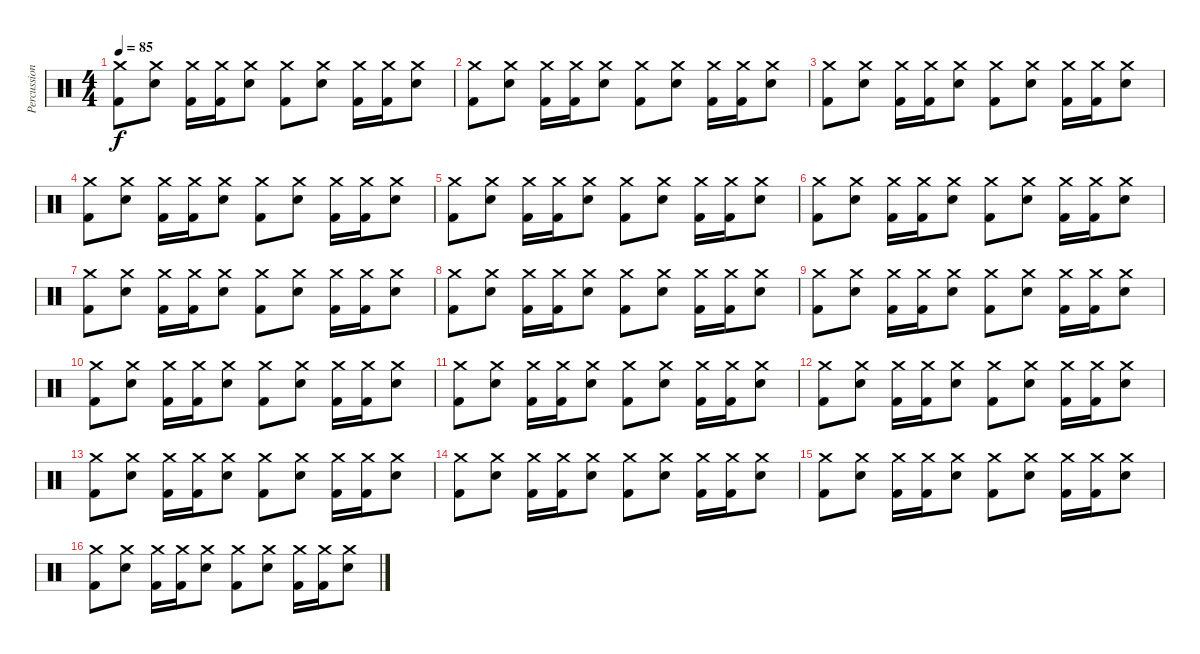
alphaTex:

\track ("Percussion" "Percussion") {instrument percussion}
\staff {score}
\articulation defaults
\ts (4 4)
\tempo 85
\clef neutral
\ks c
("Crash medium (hit)" "Kick (hit) 2").8{dy f} ("Crash medium (hit)" "Electric Snare (hit)").8 ("Crash medium (hit)" "Kick (hit) 2").16 ("Crash medium (hit)" "Kick (hit) 2").16 ("Crash medium (hit)" "Electric Snare (hit)").8 ("Crash medium (hit)" "Kick (hit) 2").8 ("Crash medium (hit)" "Electric Snare (hit)").8 ("Crash medium (hit)" "Kick (hit) 2").16 ("Crash medium (hit)" "Kick (hit) 2").16 ("Crash medium (hit)" "Electric Snare (hit)").8 |
("Crash medium (hit)" "Kick (hit) 2").8 ("Crash medium (hit)" "Electric Snare (hit)").8 ("Crash medium (hit)" "Kick (hit) 2").16 ("Crash medium (hit)" "Kick (hit) 2").16 ("Crash medium (hit)" "Electric Snare (hit)").8 ("Crash medium (hit)" "Kick (hit) 2").8 ("Crash medium (hit)" "Electric Snare (hit)").8 ("Crash medium (hit)" "Kick (hit) 2").16 ("Crash medium (hit)" "Kick (hit) 2").16 ("Crash medium (hit)" "Electric Snare (hit)").8 |
("Crash medium (hit)" "Kick (hit) 2").8 ("Crash medium (hit)" "Electric Snare (hit)").8 ("Crash medium (hit)" "Kick (hit) 2").16 ("Crash medium (hit)" "Kick (hit) 2").16 ("Crash medium (hit)" "Electric Snare (hit)").8 ("Crash medium (hit)" "Kick (hit) 2").8 ("Crash medium (hit)" "Electric Snare (hit)").8 ("Crash medium (hit)" "Kick (hit) 2").16 ("Crash medium (hit)" "Kick (hit) 2").16 ("Crash medium (hit)" "Electric Snare (hit)").8 |
("Crash medium (hit)" "Kick (hit) 2").8 ("Crash medium (hit)" "Electric Snare (hit)").8 ("Crash medium (hit)" "Kick (hit) 2").16 ("Crash medium (hit)" "Kick (hit) 2").16 ("Crash medium (hit)" "Electric Snare (hit)").8 ("Crash medium (hit)" "Kick (hit) 2").8 ("Crash medium (hit)" "Electric Snare (hit)").8 ("Crash medium (hit)" "Kick (hit) 2").16 ("Crash medium (hit)" "Kick (hit) 2").16 ("Crash medium (hit)" "Electric Snare (hit)").8 |
("Crash medium (hit)" "Kick (hit) 2").8 ("Crash medium (hit)" "Electric Snare (hit)").8 ("Crash medium (hit)" "Kick (hit) 2").16 ("Crash medium (hit)" "Kick (hit) 2").16 ("Crash medium (hit)" "Electric Snare (hit)").8 ("Crash medium (hit)" "Kick (hit) 2").8 ("Crash medium (hit)" "Electric Snare (hit)").8 ("Crash medium (hit)" "Kick (hit) 2").16 ("Crash medium (hit)" "Kick (hit) 2").16 ("Crash medium (hit)" "Electric Snare (hit)").8 |
("Crash medium (hit)" "Kick (hit) 2").8 ("Crash medium (hit)" "Electric Snare (hit)").8 ("Crash medium (hit)" "Kick (hit) 2").16 ("Crash medium (hit)" "Kick (hit) 2").16 ("Crash medium (hit)" "Electric Snare (hit)").8 ("Crash medium (hit)" "Kick (hit) 2").8 ("Crash medium (hit)" "Electric Snare (hit)").8 ("Crash medium (hit)" "Kick (hit) 2").16 ("Crash medium (hit)" "Kick (hit) 2").16 ("Crash medium (hit)" "Electric Snare (hit)").8 |
("Crash medium (hit)" "Kick (hit) 2").8 ("Crash medium (hit)" "Electric Snare (hit)").8 ("Crash medium (hit)" "Kick (hit) 2").16 ("Crash medium (hit)" "Kick (hit) 2").16 ("Crash medium (hit)" "Electric Snare (hit)").8 ("Crash medium (hit)" "Kick (hit) 2").8 ("Crash medium (hit)" "Electric Snare (hit)").8 ("Crash medium (hit)" "Kick (hit) 2").16 ("Crash medium (hit)" "Kick (hit) 2").16 ("Crash medium (hit)" "Electric Snare (hit)").8 |
("Crash medium (hit)" "Kick (hit) 2").8 ("Crash medium (hit)" "Electric Snare (hit)").8 ("Crash medium (hit)" "Kick (hit) 2").16 ("Crash medium (hit)" "Kick (hit) 2").16 ("Crash medium (hit)" "Electric Snare (hit)").8 ("Crash medium (hit)" "Kick (hit) 2").8 ("Crash medium (hit)" "Electric Snare (hit)").8 ("Crash medium (hit)" "Kick (hit) 2").16 ("Crash medium (hit)" "Kick (hit) 2").16 ("Crash medium (hit)" "Electric Snare (hit)").8 |
("Crash medium (hit)" "Kick (hit) 2").8 ("Crash medium (hit)" "Electric Snare (hit)").8 ("Crash medium (hit)" "Kick (hit) 2").16 ("Crash medium (hit)" "Kick (hit) 2").16 ("Crash medium (hit)" "Electric Snare (hit)").8 ("Crash medium (hit)" "Kick (hit) 2").8 ("Crash medium (hit)" "Electric Snare (hit)").8 ("Crash medium (hit)" "Kick (hit) 2").16 ("Crash medium (hit)" "Kick (hit) 2").16 ("Crash medium (hit)" "Electric Snare (hit)").8 |
("Crash medium (hit)" "Kick (hit) 2").8 ("Crash medium (hit)" "Electric Snare (hit)").8 ("Crash medium (hit)" "Kick (hit) 2").16 ("Crash medium (hit)" "Kick (hit) 2").16 ("Crash medium (hit)" "Electric Snare (hit)").8 ("Crash medium (hit)" "Kick (hit) 2").8 ("Crash medium (hit)" "Electric Snare (hit)").8 ("Crash medium (hit)" "Kick (hit) 2").16 ("Crash medium (hit)" "Kick (hit) 2").16 ("Crash medium (hit)" "Electric Snare (hit)").8 |
("Crash medium (hit)" "Kick (hit) 2").8 ("Crash medium (hit)" "Electric Snare (hit)").8 ("Crash medium (hit)" "Kick (hit) 2").16 ("Crash medium (hit)" "Kick (hit) 2").16 ("Crash medium (hit)" "Electric Snare (hit)").8 ("Crash medium (hit)" "Kick (hit) 2").8 ("Crash medium (hit)" "Electric Snare (hit)").8 ("Crash medium (hit)" "Kick (hit) 2").16 ("Crash medium (hit)" "Kick (hit) 2").16 ("Crash medium (hit)" "Electric Snare (hit)").8 |
("Crash medium (hit)" "Kick (hit) 2").8 ("Crash medium (hit)" "Electric Snare (hit)").8 ("Crash medium (hit)" "Kick (hit) 2").16 ("Crash medium (hit)" "Kick (hit) 2").16 ("Crash medium (hit)" "Electric Snare (hit)").8 ("Crash medium (hit)" "Kick (hit) 2").8 ("Crash medium (hit)" "Electric Snare (hit)").8 ("Crash medium (hit)" "Kick (hit) 2").16 ("Crash medium (hit)" "Kick (hit) 2").16 ("Crash medium (hit)" "Electric Snare (hit)").8 |
("Crash medium (hit)" "Kick (hit) 2").8 ("Crash medium (hit)" "Electric Snare (hit)").8 ("Crash medium (hit)" "Kick (hit) 2").16 ("Crash medium (hit)" "Kick (hit) 2").16 ("Crash medium (hit)" "Electric Snare (hit)").8 ("Crash medium (hit)" "Kick (hit) 2").8 ("Crash medium (hit)" "Electric Snare (hit)").8 ("Crash medium (hit)" "Kick (hit) 2").16 ("Crash medium (hit)" "Kick (hit) 2").16 ("Crash medium (hit)" "Electric Snare (hit)").8 |
("Crash medium (hit)" "Kick (hit) 2").8 ("Crash medium (hit)" "Electric Snare (hit)").8 ("Crash medium (hit)" "Kick (hit) 2").16 ("Crash medium (hit)" "Kick (hit) 2").16 ("Crash medium (hit)" "Electric Snare (hit)").8 ("Crash medium (hit)" "Kick (hit) 2").8 ("Crash medium (hit)" "Electric Snare (hit)").8 ("Crash medium (hit)" "Kick (hit) 2").16 ("Crash medium (hit)" "Kick (hit) 2").16 ("Crash medium (hit)" "Electric Snare (hit)").8 |
("Crash medium (hit)" "Kick (hit) 2").8 ("Crash medium (hit)" "Electric Snare (hit)").8 ("Crash medium (hit)" "Kick (hit) 2").16 ("Crash medium (hit)" "Kick (hit) 2").16 ("Crash medium (hit)" "Electric Snare (hit)").8 ("Crash medium (hit)" "Kick (hit) 2").8 ("Crash medium (hit)" "Electric Snare (hit)").8 ("Crash medium (hit)" "Kick (hit) 2").16 ("Crash medium (hit)" "Kick (hit) 2").16 ("Crash medium (hit)" "Electric Snare (hit)").8 |
("Crash medium (hit)" "Kick (hit) 2").8 ("Crash medium (hit)" "Electric Snare (hit)").8 ("Crash medium (hit)" "Kick (hit) 2").16 ("Crash medium (hit)" "Kick (hit) 2").16 ("Crash medium (hit)" "Electric Snare (hit)").8 ("Crash medium (hit)" "Kick (hit) 2").8 ("Crash medium (hit)" "Electric Snare (hit)").8 ("Crash medium (hit)" "Kick (hit) 2").16 ("Crash medium (hit)" "Kick (hit) 2").16 ("Crash medium (hit)" "Electric Snare (hit)").8
